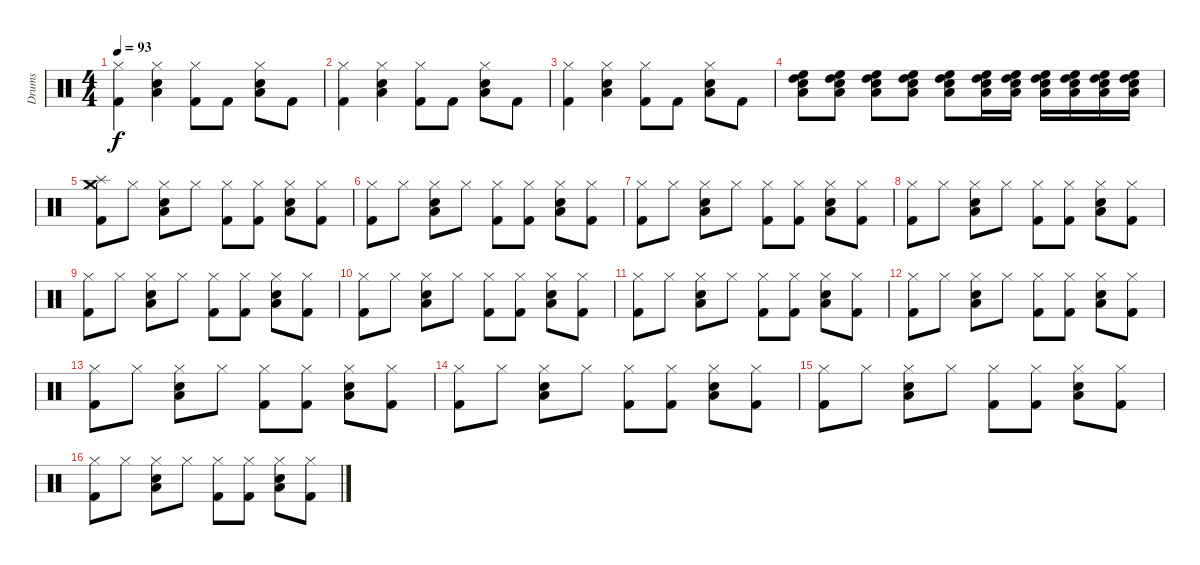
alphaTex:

\track ("Drums" "Drums") {instrument percussion}
\staff {score}
\articulation defaults
\ts (4 4)
\tempo 93
\clef neutral
\ks c
("Hi-Hat (closed)" "Kick (hit) 2").4{dy f} ("Hi-Hat (closed)" "Snare (hit) 2" "Low Tom (hit)").4 ("Hi-Hat (closed)" "Kick (hit) 2").8 "Kick (hit) 2".8 ("Hi-Hat (closed)" "Snare (hit) 2" "Low Tom (hit)").8 "Kick (hit) 2".8 |
("Hi-Hat (closed)" "Kick (hit) 2").4 ("Hi-Hat (closed)" "Snare (hit) 2" "Low Tom (hit)").4 ("Hi-Hat (closed)" "Kick (hit) 2").8 "Kick (hit) 2".8 ("Hi-Hat (closed)" "Snare (hit) 2" "Low Tom (hit)").8 "Kick (hit) 2".8 |
("Hi-Hat (closed)" "Kick (hit) 2").4 ("Hi-Hat (closed)" "Snare (hit) 2" "Low Tom (hit)").4 ("Hi-Hat (closed)" "Kick (hit) 2").8 "Kick (hit) 2".8 ("Hi-Hat (closed)" "Snare (hit) 2" "Low Tom (hit)").8 "Kick (hit) 2".8 |
("High Floor Tom (hit)" "Low Tom (hit)" "High Tom (hit)" "Snare (hit) 2").8 ("High Floor Tom (hit)" "Low Tom (hit)" "High Tom (hit)" "Snare (hit) 2").8 ("High Floor Tom (hit)" "Low Tom (hit)" "High Tom (hit)" "Snare (hit) 2").8 ("High Floor Tom (hit)" "Low Tom (hit)" "High Tom (hit)" "Snare (hit) 2").8 ("High Floor Tom (hit)" "Low Tom (hit)" "High Tom (hit)" "Snare (hit) 2").8 ("High Floor Tom (hit)" "Low Tom (hit)" "High Tom (hit)" "Snare (hit) 2").16 ("High Floor Tom (hit)" "Low Tom (hit)" "High Tom (hit)" "Snare (hit) 2").16 ("High Floor Tom (hit)" "Low Tom (hit)" "High Tom (hit)" "Snare (hit) 2").16 ("High Floor Tom (hit)" "Low Tom (hit)" "High Tom (hit)" "Snare (hit) 2").16 ("High Floor Tom (hit)" "Low Tom (hit)" "High Tom (hit)" "Snare (hit) 2").16 ("High Floor Tom (hit)" "Low Tom (hit)" "High Tom (hit)" "Snare (hit) 2").16 |
("Hi-Hat (closed)" "Kick (hit) 2" "Splash (hit)" "Crash medium (hit)").8 "Hi-Hat (closed)".8 ("Hi-Hat (closed)" "Snare (hit) 2" "Low Tom (hit)").8 "Hi-Hat (closed)".8 ("Hi-Hat (closed)" "Kick (hit) 2").8 ("Hi-Hat (closed)" "Kick (hit) 2").8 ("Hi-Hat (closed)" "Snare (hit) 2" "Low Tom (hit)").8 ("Hi-Hat (closed)" "Kick (hit) 2").8 |
("Hi-Hat (closed)" "Kick (hit) 2").8 "Hi-Hat (closed)".8 ("Hi-Hat (closed)" "Snare (hit) 2" "Low Tom (hit)").8 "Hi-Hat (closed)".8 ("Hi-Hat (closed)" "Kick (hit) 2").8 ("Hi-Hat (closed)" "Kick (hit) 2").8 ("Hi-Hat (closed)" "Snare (hit) 2" "Low Tom (hit)").8 ("Hi-Hat (closed)" "Kick (hit) 2").8 |
("Hi-Hat (closed)" "Kick (hit) 2").8 "Hi-Hat (closed)".8 ("Hi-Hat (closed)" "Snare (hit) 2" "Low Tom (hit)").8 "Hi-Hat (closed)".8 ("Hi-Hat (closed)" "Kick (hit) 2").8 ("Hi-Hat (closed)" "Kick (hit) 2").8 ("Hi-Hat (closed)" "Snare (hit) 2" "Low Tom (hit)").8 ("Hi-Hat (closed)" "Kick (hit) 2").8 |
("Hi-Hat (closed)" "Kick (hit) 2").8 "Hi-Hat (closed)".8 ("Hi-Hat (closed)" "Snare (hit) 2" "Low Tom (hit)").8 "Hi-Hat (closed)".8 ("Hi-Hat (closed)" "Kick (hit) 2").8 ("Hi-Hat (closed)" "Kick (hit) 2").8 ("Hi-Hat (closed)" "Snare (hit) 2" "Low Tom (hit)").8 ("Hi-Hat (closed)" "Kick (hit) 2").8 |
("Hi-Hat (closed)" "Kick (hit) 2").8 "Hi-Hat (closed)".8 ("Hi-Hat (closed)" "Snare (hit) 2" "Low Tom (hit)").8 "Hi-Hat (closed)".8 ("Hi-Hat (closed)" "Kick (hit) 2").8 ("Hi-Hat (closed)" "Kick (hit) 2").8 ("Hi-Hat (closed)" "Snare (hit) 2" "Low Tom (hit)").8 ("Hi-Hat (closed)" "Kick (hit) 2").8 |
("Hi-Hat (closed)" "Kick (hit) 2").8 "Hi-Hat (closed)".8 ("Hi-Hat (closed)" "Snare (hit) 2" "Low Tom (hit)").8 "Hi-Hat (closed)".8 ("Hi-Hat (closed)" "Kick (hit) 2").8 ("Hi-Hat (closed)" "Kick (hit) 2").8 ("Hi-Hat (closed)" "Snare (hit) 2" "Low Tom (hit)").8 ("Hi-Hat (closed)" "Kick (hit) 2").8 |
("Hi-Hat (closed)" "Kick (hit) 2").8 "Hi-Hat (closed)".8 ("Hi-Hat (closed)" "Snare (hit) 2" "Low Tom (hit)").8 "Hi-Hat (closed)".8 ("Hi-Hat (closed)" "Kick (hit) 2").8 ("Hi-Hat (closed)" "Kick (hit) 2").8 ("Hi-Hat (closed)" "Snare (hit) 2" "Low Tom (hit)").8 ("Hi-Hat (closed)" "Kick (hit) 2").8 |
("Hi-Hat (closed)" "Kick (hit) 2").8 "Hi-Hat (closed)".8 ("Hi-Hat (closed)" "Snare (hit) 2" "Low Tom (hit)").8 "Hi-Hat (closed)".8 ("Hi-Hat (closed)" "Kick (hit) 2").8 ("Hi-Hat (closed)" "Kick (hit) 2").8 ("Hi-Hat (closed)" "Snare (hit) 2" "Low Tom (hit)").8 ("Hi-Hat (closed)" "Kick (hit) 2").8 |
("Hi-Hat (closed)" "Kick (hit) 2").8 "Hi-Hat (closed)".8 ("Hi-Hat (closed)" "Snare (hit) 2" "Low Tom (hit)").8 "Hi-Hat (closed)".8 ("Hi-Hat (closed)" "Kick (hit) 2").8 ("Hi-Hat (closed)" "Kick (hit) 2").8 ("Hi-Hat (closed)" "Snare (hit) 2" "Low Tom (hit)").8 ("Hi-Hat (closed)" "Kick (hit) 2").8 |
("Hi-Hat (closed)" "Kick (hit) 2").8 "Hi-Hat (closed)".8 ("Hi-Hat (closed)" "Snare (hit) 2" "Low Tom (hit)").8 "Hi-Hat (closed)".8 ("Hi-Hat (closed)" "Kick (hit) 2").8 ("Hi-Hat (closed)" "Kick (hit) 2").8 ("Hi-Hat (closed)" "Snare (hit) 2" "Low Tom (hit)").8 ("Hi-Hat (closed)" "Kick (hit) 2").8 |
("Hi-Hat (closed)" "Kick (hit) 2").8 "Hi-Hat (closed)".8 ("Hi-Hat (closed)" "Snare (hit) 2" "Low Tom (hit)").8 "Hi-Hat (closed)".8 ("Hi-Hat (closed)" "Kick (hit) 2").8 ("Hi-Hat (closed)" "Kick (hit) 2").8 ("Hi-Hat (closed)" "Snare (hit) 2" "Low Tom (hit)").8 ("Hi-Hat (closed)" "Kick (hit) 2").8 |
("Hi-Hat (closed)" "Kick (hit) 2").8 "Hi-Hat (closed)".8 ("Hi-Hat (closed)" "Snare (hit) 2" "Low Tom (hit)").8 "Hi-Hat (closed)".8 ("Hi-Hat (closed)" "Kick (hit) 2").8 ("Hi-Hat (closed)" "Kick (hit) 2").8 ("Hi-Hat (closed)" "Snare (hit) 2" "Low Tom (hit)").8 ("Hi-Hat (closed)" "Kick (hit) 2").8
